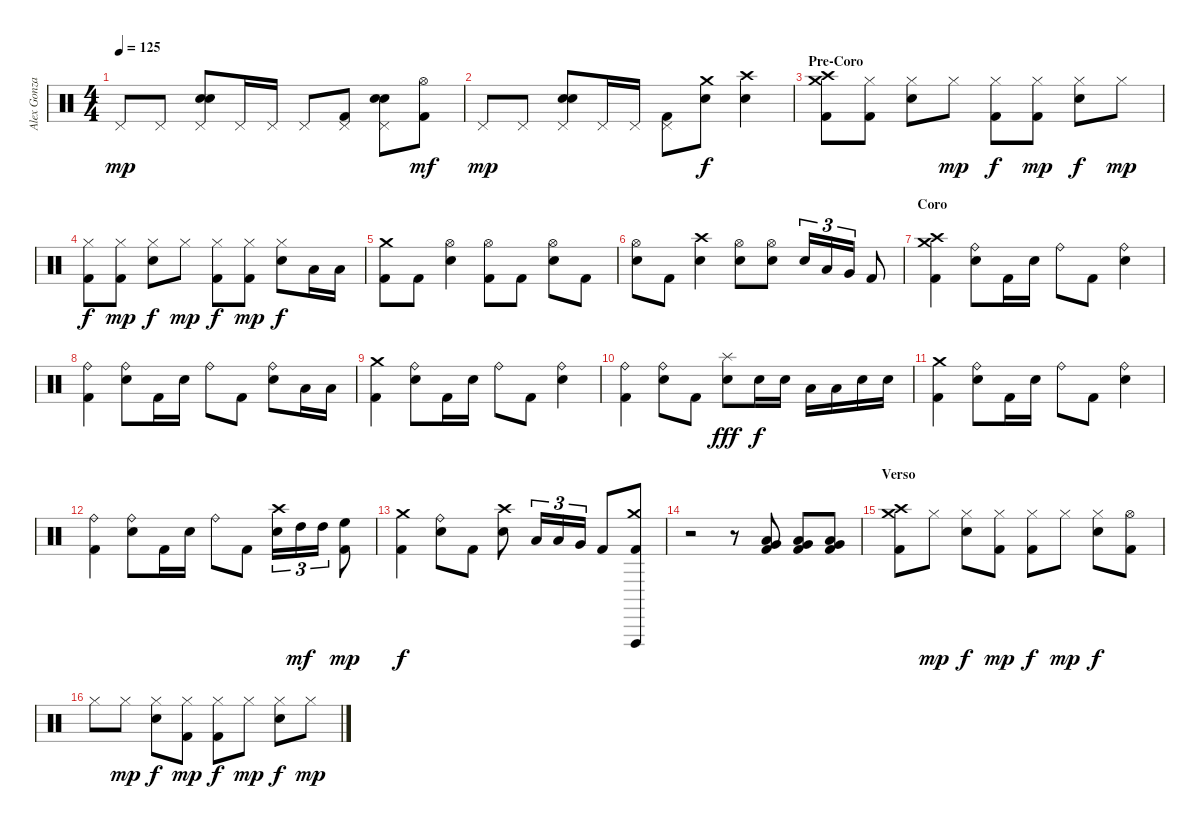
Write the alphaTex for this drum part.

\track ("Alex Gonzales" "Alex Gonza") {instrument percussion}
\staff {score}
\articulation defaults
\ts (4 4)
\tempo 125
\clef neutral
\ks c "Pedal Hi-Hat (hit)".8{dy mp} "Pedal Hi-Hat (hit)".8
("Pedal Hi-Hat (hit)" "Hand Clap (hit)" "Electric Snare (hit)").8 "Pedal Hi-Hat (hit)".16 "Pedal Hi-Hat (hit)".16 "Pedal Hi-Hat (hit)".8 ("Pedal Hi-Hat (hit)" "Kick (hit) 2").8 ("Pedal Hi-Hat (hit)" "Hand Clap (hit)" "Electric Snare (hit)").8 ("Hi-Hat (open)" "Kick (hit) 2").8{dy mf} |
"Pedal Hi-Hat (hit)".8{dy mp} "Pedal Hi-Hat (hit)".8 ("Pedal Hi-Hat (hit)" "Hand Clap (hit)" "Electric Snare (hit)").8 "Pedal Hi-Hat (hit)".16 "Pedal Hi-Hat (hit)".16 ("Pedal Hi-Hat (hit)" "Kick (hit) 2").8 ("Crash medium (hit)" "Electric Snare (hit)").8{dy f} ("Crash high (hit)" "Electric Snare (hit)").4 |
\section ("" "Pre-Coro")
("Crash medium (hit)" "Crash high (hit)" "Kick (hit) 2").8 ("Hi-Hat (closed)" "Kick (hit) 2").8 ("Hi-Hat (closed)" "Electric Snare (hit)").8 "Hi-Hat (closed)".8{dy mp} ("Hi-Hat (closed)" "Kick (hit) 2").8{dy f} ("Hi-Hat (closed)" "Kick (hit) 2").8{dy mp} ("Hi-Hat (closed)" "Electric Snare (hit)").8{dy f} "Hi-Hat (closed)".8{dy mp} |
("Hi-Hat (closed)" "Kick (hit) 2").8{dy f} ("Hi-Hat (closed)" "Kick (hit) 2").8{dy mp} ("Hi-Hat (closed)" "Electric Snare (hit)").8{dy f} "Hi-Hat (closed)".8{dy mp} ("Hi-Hat (closed)" "Kick (hit) 2").8{dy f} ("Hi-Hat (closed)" "Kick (hit) 2").8{dy mp} ("Hi-Hat (closed)" "Electric Snare (hit)").8{dy f} "Low Tom (hit)".16 "Low Tom (hit)".16 |
("Crash medium (hit)" "Kick (hit) 2").8 "Kick (hit) 2".8 ("Hi-Hat (open)" "Electric Snare (hit)").4 ("Hi-Hat (open)" "Kick (hit) 2").8 "Kick (hit) 2".8 ("Hi-Hat (open)" "Electric Snare (hit)").8 "Kick (hit) 2".8 |
("Hi-Hat (open)" "Electric Snare (hit)").8 "Kick (hit) 2".8 ("Crash high (hit)" "Electric Snare (hit)").4 ("Hi-Hat (open)" "Electric Snare (hit)").8 ("Hi-Hat (open)" "Electric Snare (hit)").8 "Electric Snare (hit)".16{tu (3 2)} "Low Tom (hit)".16{tu (3 2)} "Very Low Tom (hit)".16{tu (3 2)} "Kick (hit) 2".8 |
\section ("" "Coro")
("Crash medium (hit)" "Crash high (hit)" "Kick (hit) 2").4 ("Ride (bell)" "Electric Snare (hit)").8 "Kick (hit) 2".16 "Electric Snare (hit)".16 "Ride (bell)".8 "Kick (hit) 2".8 ("Ride (bell)" "Electric Snare (hit)").4 |
("Ride (bell)" "Kick (hit) 2").4 ("Ride (bell)" "Electric Snare (hit)").8 "Kick (hit) 2".16 "Electric Snare (hit)".16 "Ride (bell)".8 "Kick (hit) 2".8 ("Ride (bell)" "Electric Snare (hit)").8 "Low Tom (hit)".16 "Low Tom (hit)".16 |
("Crash medium (hit)" "Kick (hit) 2").4 ("Ride (bell)" "Electric Snare (hit)").8 "Kick (hit) 2".16 "Electric Snare (hit)".16 "Ride (bell)".8 "Kick (hit) 2".8 ("Ride (bell)" "Electric Snare (hit)").4 |
("Ride (bell)" "Kick (hit) 2").4 ("Ride (bell)" "Electric Snare (hit)").8 "Kick (hit) 2".8 ("Splash (hit)" "Electric Snare (hit)").8{dy fff} "Electric Snare (hit)".16{dy f} "Electric Snare (hit)".16 "Low Tom (hit)".16 "Low Tom (hit)".16 "Electric Snare (hit)".16 "Electric Snare (hit)".16 |
("Crash medium (hit)" "Kick (hit) 2").4 ("Ride (bell)" "Electric Snare (hit)").8 "Kick (hit) 2".16 "Electric Snare (hit)".16 "Ride (bell)".8 "Kick (hit) 2".8 ("Ride (bell)" "Electric Snare (hit)").4 |
("Ride (bell)" "Kick (hit) 2").4 ("Ride (bell)" "Electric Snare (hit)").8 "Kick (hit) 2".16 "Electric Snare (hit)".16 "Ride (bell)".8 "Kick (hit) 2".8 ("Crash high (hit)" "Electric Snare (hit)").16{tu (3 2)} "High Tom (hit)".16{tu (3 2) dy mf} "High Tom (hit)".16{tu (3 2)} ("High Floor Tom (hit)" "Kick (hit) 2").8{dy mp} |
("Crash medium (hit)" "Kick (hit) 2").4{dy f} ("Ride (bell)" "Electric Snare (hit)").8 "Kick (hit) 2".8 ("Crash high (hit)" "Electric Snare (hit)").8 "Low Tom (hit)".16{tu (3 2)} "Low Tom (hit)".16{tu (3 2)} "Very Low Tom (hit)".16{tu (3 2)} "Kick (hit) 2".8 ("Crash medium (hit)" "Vibraslap (hit)" "Kick (hit) 2").8 |
r.2 r.8 ("Low Tom (hit)" "Very Low Tom (hit)" "Kick (hit) 2").8 ("Low Tom (hit)" "Very Low Tom (hit)" "Kick (hit) 2").8 ("Low Tom (hit)" "Very Low Tom (hit)" "Kick (hit) 2").8 |
\section ("" "Verso")
("Crash medium (hit)" "Crash high (hit)" "Kick (hit) 2").8 "Hi-Hat (closed)".8{dy mp} ("Hi-Hat (closed)" "Electric Snare (hit)").8{dy f} ("Hi-Hat (closed)" "Kick (hit) 2").8{dy mp} ("Hi-Hat (closed)" "Kick (hit) 2").8{dy f} "Hi-Hat (closed)".8{dy mp} ("Hi-Hat (closed)" "Electric Snare (hit)").8{dy f} ("Hi-Hat (open)" "Kick (hit) 2").8 |
"Hi-Hat (closed)".8 "Hi-Hat (closed)".8{dy mp} ("Hi-Hat (closed)" "Electric Snare (hit)").8{dy f} ("Hi-Hat (closed)" "Kick (hit) 2").8{dy mp} ("Hi-Hat (closed)" "Kick (hit) 2").8{dy f} "Hi-Hat (closed)".8{dy mp} ("Hi-Hat (closed)" "Electric Snare (hit)").8{dy f} "Hi-Hat (closed)".8{dy mp}
